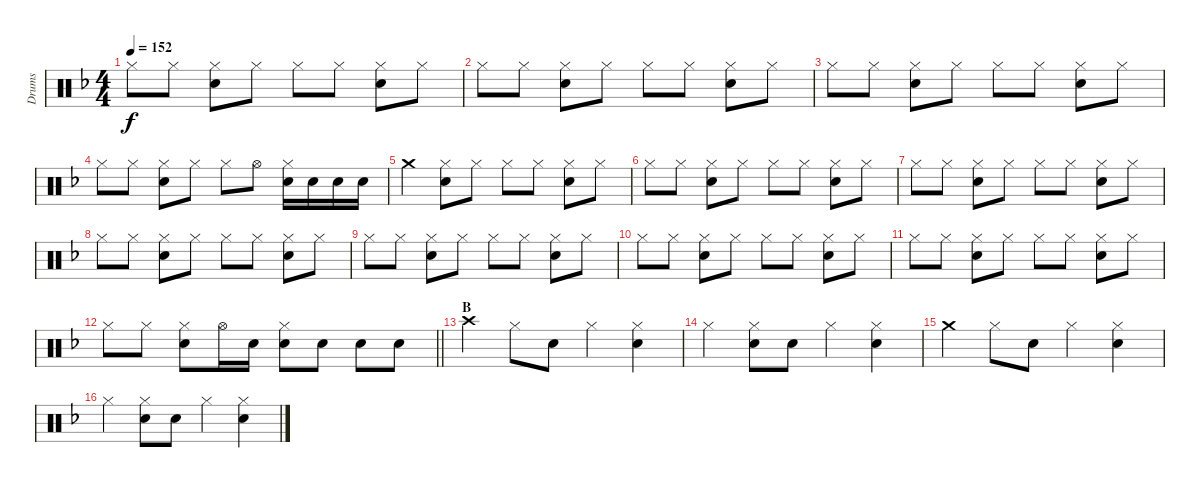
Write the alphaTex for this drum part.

\track ("Drums" "Drums") {instrument percussion}
\staff {score}
\articulation defaults
\ts (4 4)
\tempo 152
\clef neutral
\ks f "Hi-Hat (closed)".8{dy f} "Hi-Hat (closed)".8
("Hi-Hat (closed)" "Snare (hit) 2").8 "Hi-Hat (closed)".8 "Hi-Hat (closed)".8 "Hi-Hat (closed)".8 ("Hi-Hat (closed)" "Snare (hit) 2").8 "Hi-Hat (closed)".8 |
"Hi-Hat (closed)".8 "Hi-Hat (closed)".8 ("Hi-Hat (closed)" "Snare (hit) 2").8 "Hi-Hat (closed)".8 "Hi-Hat (closed)".8 "Hi-Hat (closed)".8 ("Hi-Hat (closed)" "Snare (hit) 2").8 "Hi-Hat (closed)".8 |
"Hi-Hat (closed)".8 "Hi-Hat (closed)".8 ("Hi-Hat (closed)" "Snare (hit) 2").8 "Hi-Hat (closed)".8 "Hi-Hat (closed)".8 "Hi-Hat (closed)".8 ("Hi-Hat (closed)" "Snare (hit) 2").8 "Hi-Hat (closed)".8 |
"Hi-Hat (closed)".8 "Hi-Hat (closed)".8 ("Hi-Hat (closed)" "Snare (hit) 2").8 "Hi-Hat (closed)".8 "Hi-Hat (closed)".8 "Hi-Hat (open)".8 ("Hi-Hat (closed)" "Snare (hit) 2").16 "Snare (hit) 2".16 "Snare (hit) 2".16 "Snare (hit) 2".16 |
"Crash medium (hit)".4 ("Hi-Hat (closed)" "Snare (hit) 2").8 "Hi-Hat (closed)".8 "Hi-Hat (closed)".8 "Hi-Hat (closed)".8 ("Hi-Hat (closed)" "Snare (hit) 2").8 "Hi-Hat (closed)".8 |
"Hi-Hat (closed)".8 "Hi-Hat (closed)".8 ("Hi-Hat (closed)" "Snare (hit) 2").8 "Hi-Hat (closed)".8 "Hi-Hat (closed)".8 "Hi-Hat (closed)".8 ("Hi-Hat (closed)" "Snare (hit) 2").8 "Hi-Hat (closed)".8 |
"Hi-Hat (closed)".8 "Hi-Hat (closed)".8 ("Hi-Hat (closed)" "Snare (hit) 2").8 "Hi-Hat (closed)".8 "Hi-Hat (closed)".8 "Hi-Hat (closed)".8 ("Hi-Hat (closed)" "Snare (hit) 2").8 "Hi-Hat (closed)".8 |
"Hi-Hat (closed)".8 "Hi-Hat (closed)".8 ("Hi-Hat (closed)" "Snare (hit) 2").8 "Hi-Hat (closed)".8 "Hi-Hat (closed)".8 "Hi-Hat (closed)".8 ("Hi-Hat (closed)" "Snare (hit) 2").8 "Hi-Hat (closed)".8 |
"Hi-Hat (closed)".8 "Hi-Hat (closed)".8 ("Hi-Hat (closed)" "Snare (hit) 2").8 "Hi-Hat (closed)".8 "Hi-Hat (closed)".8 "Hi-Hat (closed)".8 ("Hi-Hat (closed)" "Snare (hit) 2").8 "Hi-Hat (closed)".8 |
"Hi-Hat (closed)".8 "Hi-Hat (closed)".8 ("Hi-Hat (closed)" "Snare (hit) 2").8 "Hi-Hat (closed)".8 "Hi-Hat (closed)".8 "Hi-Hat (closed)".8 ("Hi-Hat (closed)" "Snare (hit) 2").8 "Hi-Hat (closed)".8 |
"Hi-Hat (closed)".8 "Hi-Hat (closed)".8 ("Hi-Hat (closed)" "Snare (hit) 2").8 "Hi-Hat (closed)".8 "Hi-Hat (closed)".8 "Hi-Hat (closed)".8 ("Hi-Hat (closed)" "Snare (hit) 2").8 "Hi-Hat (closed)".8 |
\barLineRight lightlight "Hi-Hat (closed)".8 "Hi-Hat (closed)".8
("Hi-Hat (closed)" "Snare (hit) 2").8 "Hi-Hat (open)".16 "Snare (hit) 2".16 ("Snare (hit) 2" "Hi-Hat (closed)").8 "Snare (hit) 2".8 "Snare (hit) 2".8 "Snare (hit) 2".8 |
\section ("" "B")
"Crash high (hit)".4 "Hi-Hat (closed)".8 "Snare (hit) 2".8 "Hi-Hat (closed)".4 ("Hi-Hat (closed)" "Snare (hit) 2").4 |
"Hi-Hat (closed)".4 ("Hi-Hat (closed)" "Snare (hit) 2").8 "Snare (hit) 2".8 "Hi-Hat (closed)".4 ("Hi-Hat (closed)" "Snare (hit) 2").4 |
"Crash medium (hit)".4 "Hi-Hat (closed)".8 "Snare (hit) 2".8 "Hi-Hat (closed)".4 ("Hi-Hat (closed)" "Snare (hit) 2").4 |
"Hi-Hat (closed)".4 ("Hi-Hat (closed)" "Snare (hit) 2").8 "Snare (hit) 2".8 "Hi-Hat (closed)".4 ("Hi-Hat (closed)" "Snare (hit) 2").4
